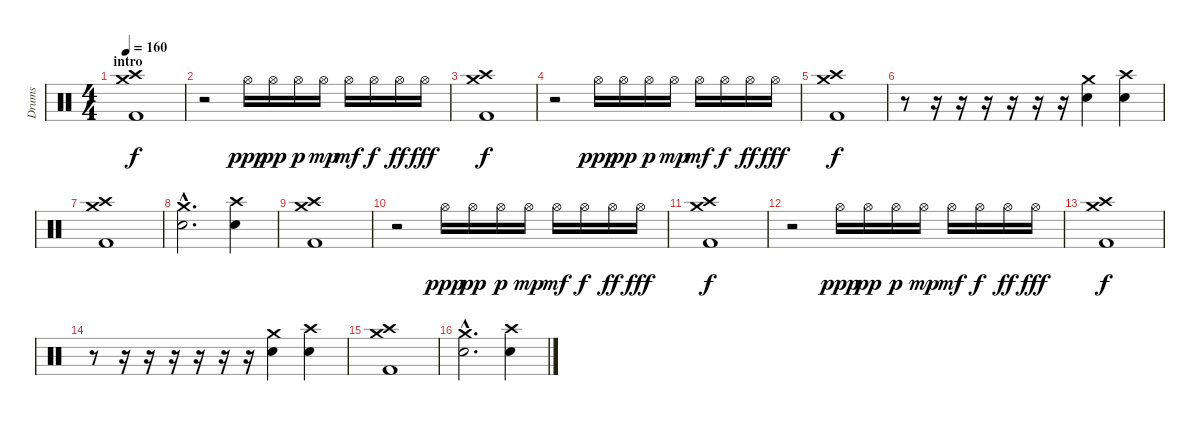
\track ("Drums" "Drums") {instrument percussion}
\staff {score}
\articulation defaults
\ts (4 4)
\section ("" "intro")
\tempo 160
\clef neutral
\ks c
("Crash high (hit)" "Crash medium (hit)" "Kick (hit) 2").1{dy f} |
r.2 "Hi-Hat (open)".16{dy ppp} "Hi-Hat (open)".16{dy pp} "Hi-Hat (open)".16{dy p} "Hi-Hat (open)".16{dy mp} "Hi-Hat (open)".16{dy mf} "Hi-Hat (open)".16{dy f} "Hi-Hat (open)".16{dy ff} "Hi-Hat (open)".16{dy fff} |
("Crash high (hit)" "Crash medium (hit)" "Kick (hit) 2").1{dy f} |
r.2 "Hi-Hat (open)".16{dy ppp} "Hi-Hat (open)".16{dy pp} "Hi-Hat (open)".16{dy p} "Hi-Hat (open)".16{dy mp} "Hi-Hat (open)".16{dy mf} "Hi-Hat (open)".16{dy f} "Hi-Hat (open)".16{dy ff} "Hi-Hat (open)".16{dy fff} |
("Crash high (hit)" "Crash medium (hit)" "Kick (hit) 2").1{dy f} |
r.8 r.16 r.16 r.16 r.16 r.16 r.16 ("Electric Snare (hit)" "Crash medium (hit)").4 ("Electric Snare (hit)" "Crash high (hit)").4 |
("Crash high (hit)" "Crash medium (hit)" "Kick (hit) 2").1 |
("Crash medium (hit)"{hac} "Electric Snare (hit)"{hac}).2{d} ("Electric Snare (hit)" "Crash high (hit)").4 |
("Crash high (hit)" "Crash medium (hit)" "Kick (hit) 2").1 |
r.2 "Hi-Hat (open)".16{dy ppp} "Hi-Hat (open)".16{dy pp} "Hi-Hat (open)".16{dy p} "Hi-Hat (open)".16{dy mp} "Hi-Hat (open)".16{dy mf} "Hi-Hat (open)".16{dy f} "Hi-Hat (open)".16{dy ff} "Hi-Hat (open)".16{dy fff} |
("Crash high (hit)" "Crash medium (hit)" "Kick (hit) 2").1{dy f} |
r.2 "Hi-Hat (open)".16{dy ppp} "Hi-Hat (open)".16{dy pp} "Hi-Hat (open)".16{dy p} "Hi-Hat (open)".16{dy mp} "Hi-Hat (open)".16{dy mf} "Hi-Hat (open)".16{dy f} "Hi-Hat (open)".16{dy ff} "Hi-Hat (open)".16{dy fff} |
("Crash high (hit)" "Crash medium (hit)" "Kick (hit) 2").1{dy f} |
r.8 r.16 r.16 r.16 r.16 r.16 r.16 ("Electric Snare (hit)" "Crash medium (hit)").4 ("Electric Snare (hit)" "Crash high (hit)").4 |
("Crash high (hit)" "Crash medium (hit)" "Kick (hit) 2").1 |
("Crash medium (hit)"{hac} "Electric Snare (hit)"{hac}).2{d} ("Electric Snare (hit)" "Crash high (hit)").4
